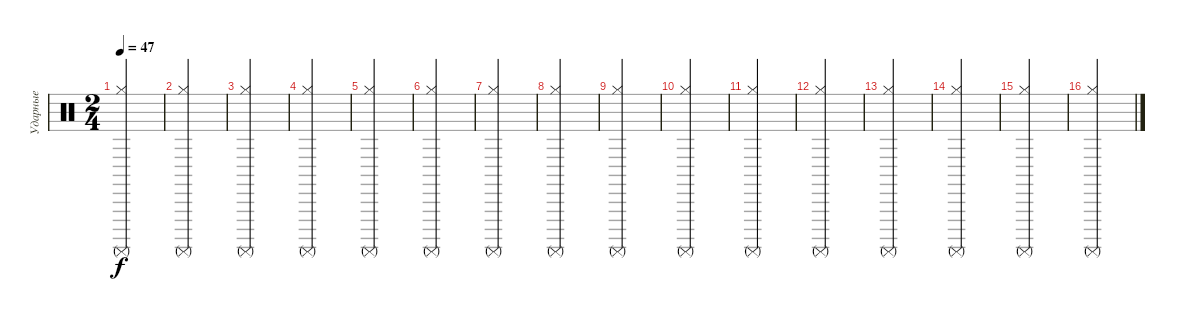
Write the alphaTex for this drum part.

\track ("Ударные" "Ударные") {instrument percussion}
\staff {score}
\articulation defaults
\ts (2 4)
\tempo 47
\clef neutral
\ks c
("Surdo (mute)" "Hi-Hat (closed)").2{dy f} |
("Surdo (mute)" "Hi-Hat (closed)").2 |
("Surdo (mute)" "Hi-Hat (closed)").2 |
("Surdo (mute)" "Hi-Hat (closed)").2 |
("Surdo (mute)" "Hi-Hat (closed)").2 |
("Surdo (mute)" "Hi-Hat (closed)").2 |
("Surdo (mute)" "Hi-Hat (closed)").2 |
("Surdo (mute)" "Hi-Hat (closed)").2 |
("Surdo (mute)" "Hi-Hat (closed)").2 |
("Surdo (mute)" "Hi-Hat (closed)").2 |
("Surdo (mute)" "Hi-Hat (closed)").2 |
("Surdo (mute)" "Hi-Hat (closed)").2 |
("Surdo (mute)" "Hi-Hat (closed)").2 |
("Surdo (mute)" "Hi-Hat (closed)").2 |
("Surdo (mute)" "Hi-Hat (closed)").2 |
("Surdo (mute)" "Hi-Hat (closed)").2
